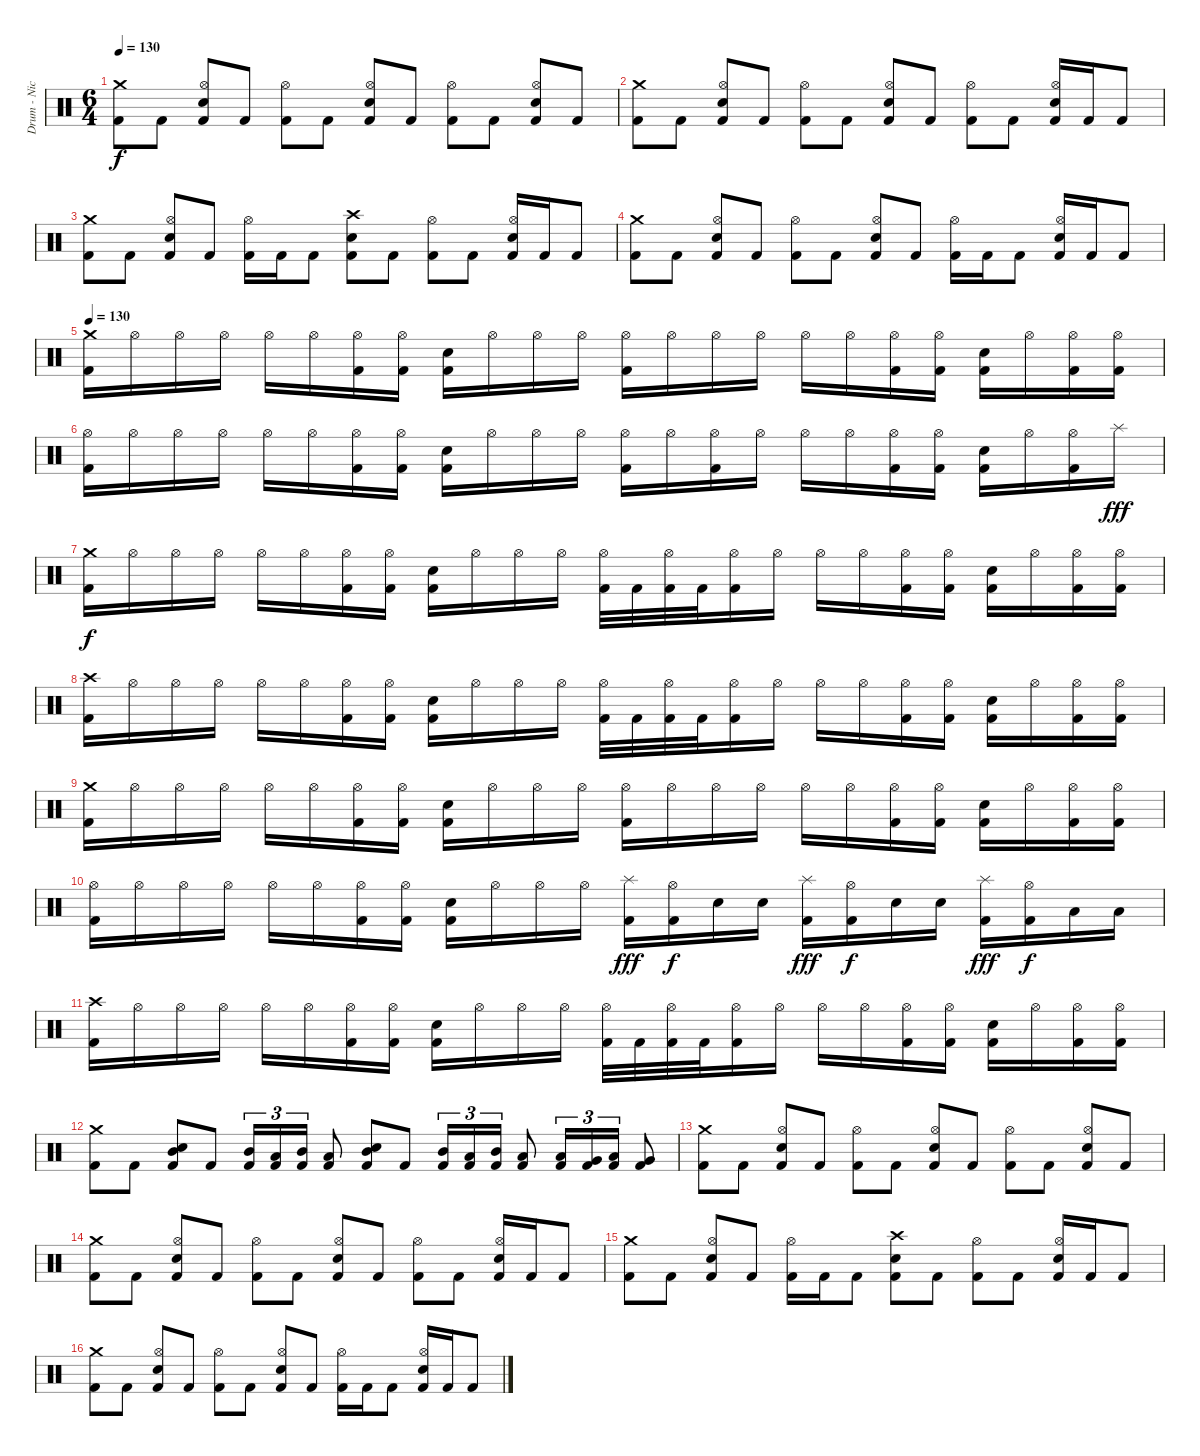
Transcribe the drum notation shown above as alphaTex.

\track ("Drum - Nicholas" "Drum - Nic") {instrument percussion}
\staff {score}
\articulation defaults
\ts (6 4)
\tempo 130
\clef neutral
\ks c
("Crash medium (hit)" "Kick (hit) 2").8{dy f} "Kick (hit) 2".8 ("Hi-Hat (open)" "Snare (hit) 2" "Kick (hit) 2").8 "Kick (hit) 2".8 ("Hi-Hat (open)" "Kick (hit) 2").8 "Kick (hit) 2".8 ("Hi-Hat (open)" "Snare (hit) 2" "Kick (hit) 2").8 "Kick (hit) 2".8 ("Hi-Hat (open)" "Kick (hit) 2").8 "Kick (hit) 2".8 ("Hi-Hat (open)" "Snare (hit) 2" "Kick (hit) 2").8 "Kick (hit) 2".8 |
("Crash medium (hit)" "Kick (hit) 2").8 "Kick (hit) 2".8 ("Hi-Hat (open)" "Snare (hit) 2" "Kick (hit) 2").8 "Kick (hit) 2".8 ("Hi-Hat (open)" "Kick (hit) 2").8 "Kick (hit) 2".8 ("Hi-Hat (open)" "Snare (hit) 2" "Kick (hit) 2").8 "Kick (hit) 2".8 ("Hi-Hat (open)" "Kick (hit) 2").8 "Kick (hit) 2".8 ("Hi-Hat (open)" "Snare (hit) 2" "Kick (hit) 2").16 "Kick (hit) 2".16 "Kick (hit) 2".8 |
("Crash medium (hit)" "Kick (hit) 2").8 "Kick (hit) 2".8 ("Hi-Hat (open)" "Snare (hit) 2" "Kick (hit) 2").8 "Kick (hit) 2".8 ("Hi-Hat (open)" "Kick (hit) 2").16 "Kick (hit) 2".16 "Kick (hit) 2".8 ("Crash high (hit)" "Snare (hit) 2" "Kick (hit) 2").8 "Kick (hit) 2".8 ("Hi-Hat (open)" "Kick (hit) 2").8 "Kick (hit) 2".8 ("Hi-Hat (open)" "Snare (hit) 2" "Kick (hit) 2").16 "Kick (hit) 2".16 "Kick (hit) 2".8 |
("Crash medium (hit)" "Kick (hit) 2").8 "Kick (hit) 2".8 ("Hi-Hat (open)" "Snare (hit) 2" "Kick (hit) 2").8 "Kick (hit) 2".8 ("Hi-Hat (open)" "Kick (hit) 2").8 "Kick (hit) 2".8 ("Hi-Hat (open)" "Snare (hit) 2" "Kick (hit) 2").8 "Kick (hit) 2".8 ("Hi-Hat (open)" "Kick (hit) 2").16 "Kick (hit) 2".16 "Kick (hit) 2".8 ("Hi-Hat (open)" "Snare (hit) 2" "Kick (hit) 2").16 "Kick (hit) 2".16 "Kick (hit) 2".8 |
\tempo 130
("Crash medium (hit)" "Kick (hit) 2").16 "Hi-Hat (open)".16 "Hi-Hat (open)".16 "Hi-Hat (open)".16 "Hi-Hat (open)".16 "Hi-Hat (open)".16 ("Hi-Hat (open)" "Kick (hit) 2").16 ("Hi-Hat (open)" "Kick (hit) 2").16 ("Snare (hit) 2" "Kick (hit) 2").16 "Hi-Hat (open)".16 "Hi-Hat (open)".16 "Hi-Hat (open)".16 ("Hi-Hat (open)" "Kick (hit) 2").16 "Hi-Hat (open)".16 "Hi-Hat (open)".16 "Hi-Hat (open)".16 "Hi-Hat (open)".16 "Hi-Hat (open)".16 ("Hi-Hat (open)" "Kick (hit) 2").16 ("Hi-Hat (open)" "Kick (hit) 2").16 ("Snare (hit) 2" "Kick (hit) 2").16 "Hi-Hat (open)".16 ("Hi-Hat (open)" "Kick (hit) 2").16 ("Hi-Hat (open)" "Kick (hit) 2").16 |
("Hi-Hat (open)" "Kick (hit) 2").16 "Hi-Hat (open)".16 "Hi-Hat (open)".16 "Hi-Hat (open)".16 "Hi-Hat (open)".16 "Hi-Hat (open)".16 ("Hi-Hat (open)" "Kick (hit) 2").16 ("Hi-Hat (open)" "Kick (hit) 2").16 ("Snare (hit) 2" "Kick (hit) 2").16 "Hi-Hat (open)".16 "Hi-Hat (open)".16 "Hi-Hat (open)".16 ("Hi-Hat (open)" "Kick (hit) 2").16 "Hi-Hat (open)".16 ("Hi-Hat (open)" "Kick (hit) 2").16 "Hi-Hat (open)".16 "Hi-Hat (open)".16 "Hi-Hat (open)".16 ("Hi-Hat (open)" "Kick (hit) 2").16 ("Hi-Hat (open)" "Kick (hit) 2").16 ("Snare (hit) 2" "Kick (hit) 2").16 "Hi-Hat (open)".16 ("Hi-Hat (open)" "Kick (hit) 2").16 "Splash (hit)".16{dy fff} |
("Crash medium (hit)" "Kick (hit) 2").16{dy f} "Hi-Hat (open)".16 "Hi-Hat (open)".16 "Hi-Hat (open)".16 "Hi-Hat (open)".16 "Hi-Hat (open)".16 ("Hi-Hat (open)" "Kick (hit) 2").16 ("Hi-Hat (open)" "Kick (hit) 2").16 ("Snare (hit) 2" "Kick (hit) 2").16 "Hi-Hat (open)".16 "Hi-Hat (open)".16 "Hi-Hat (open)".16 ("Hi-Hat (open)" "Kick (hit) 2").32 "Kick (hit) 2".32 ("Hi-Hat (open)" "Kick (hit) 2").32 "Kick (hit) 2".32 ("Hi-Hat (open)" "Kick (hit) 2").16 "Hi-Hat (open)".16 "Hi-Hat (open)".16 "Hi-Hat (open)".16 ("Hi-Hat (open)" "Kick (hit) 2").16 ("Hi-Hat (open)" "Kick (hit) 2").16 ("Snare (hit) 2" "Kick (hit) 2").16 "Hi-Hat (open)".16 ("Hi-Hat (open)" "Kick (hit) 2").16 ("Hi-Hat (open)" "Kick (hit) 2").16 |
("Crash high (hit)" "Kick (hit) 2").16 "Hi-Hat (open)".16 "Hi-Hat (open)".16 "Hi-Hat (open)".16 "Hi-Hat (open)".16 "Hi-Hat (open)".16 ("Hi-Hat (open)" "Kick (hit) 2").16 ("Hi-Hat (open)" "Kick (hit) 2").16 ("Snare (hit) 2" "Kick (hit) 2").16 "Hi-Hat (open)".16 "Hi-Hat (open)".16 "Hi-Hat (open)".16 ("Hi-Hat (open)" "Kick (hit) 2").32 "Kick (hit) 2".32 ("Hi-Hat (open)" "Kick (hit) 2").32 "Kick (hit) 2".32 ("Hi-Hat (open)" "Kick (hit) 2").16 "Hi-Hat (open)".16 "Hi-Hat (open)".16 "Hi-Hat (open)".16 ("Hi-Hat (open)" "Kick (hit) 2").16 ("Hi-Hat (open)" "Kick (hit) 2").16 ("Snare (hit) 2" "Kick (hit) 2").16 "Hi-Hat (open)".16 ("Hi-Hat (open)" "Kick (hit) 2").16 ("Hi-Hat (open)" "Kick (hit) 2").16 |
("Crash medium (hit)" "Kick (hit) 2").16 "Hi-Hat (open)".16 "Hi-Hat (open)".16 "Hi-Hat (open)".16 "Hi-Hat (open)".16 "Hi-Hat (open)".16 ("Hi-Hat (open)" "Kick (hit) 2").16 ("Hi-Hat (open)" "Kick (hit) 2").16 ("Snare (hit) 2" "Kick (hit) 2").16 "Hi-Hat (open)".16 "Hi-Hat (open)".16 "Hi-Hat (open)".16 ("Hi-Hat (open)" "Kick (hit) 2").16 "Hi-Hat (open)".16 "Hi-Hat (open)".16 "Hi-Hat (open)".16 "Hi-Hat (open)".16 "Hi-Hat (open)".16 ("Hi-Hat (open)" "Kick (hit) 2").16 ("Hi-Hat (open)" "Kick (hit) 2").16 ("Snare (hit) 2" "Kick (hit) 2").16 "Hi-Hat (open)".16 ("Hi-Hat (open)" "Kick (hit) 2").16 ("Hi-Hat (open)" "Kick (hit) 2").16 |
("Hi-Hat (open)" "Kick (hit) 2").16 "Hi-Hat (open)".16 "Hi-Hat (open)".16 "Hi-Hat (open)".16 "Hi-Hat (open)".16 "Hi-Hat (open)".16 ("Hi-Hat (open)" "Kick (hit) 2").16 ("Hi-Hat (open)" "Kick (hit) 2").16 ("Snare (hit) 2" "Kick (hit) 2").16 "Hi-Hat (open)".16 "Hi-Hat (open)".16 "Hi-Hat (open)".16 ("Splash (hit)" "Kick (hit) 2").16{dy fff} ("Hi-Hat (open)" "Kick (hit) 2").16{dy f} "Snare (hit) 2".16 "Snare (hit) 2".16 ("Splash (hit)" "Kick (hit) 2").16{dy fff} ("Hi-Hat (open)" "Kick (hit) 2").16{dy f} "Snare (hit) 2".16 "Snare (hit) 2".16 ("Splash (hit)" "Kick (hit) 2").16{dy fff} ("Hi-Hat (open)" "Kick (hit) 2").16{dy f} "Low Tom (hit)".16 "Low Tom (hit)".16 |
("Crash high (hit)" "Kick (hit) 2").16 "Hi-Hat (open)".16 "Hi-Hat (open)".16 "Hi-Hat (open)".16 "Hi-Hat (open)".16 "Hi-Hat (open)".16 ("Hi-Hat (open)" "Kick (hit) 2").16 ("Hi-Hat (open)" "Kick (hit) 2").16 ("Snare (hit) 2" "Kick (hit) 2").16 "Hi-Hat (open)".16 "Hi-Hat (open)".16 "Hi-Hat (open)".16 ("Hi-Hat (open)" "Kick (hit) 2").32 "Kick (hit) 2".32 ("Hi-Hat (open)" "Kick (hit) 2").32 "Kick (hit) 2".32 ("Hi-Hat (open)" "Kick (hit) 2").16 "Hi-Hat (open)".16 "Hi-Hat (open)".16 "Hi-Hat (open)".16 ("Hi-Hat (open)" "Kick (hit) 2").16 ("Hi-Hat (open)" "Kick (hit) 2").16 ("Snare (hit) 2" "Kick (hit) 2").16 "Hi-Hat (open)".16 ("Hi-Hat (open)" "Kick (hit) 2").16 ("Hi-Hat (open)" "Kick (hit) 2").16 |
("Crash medium (hit)" "Kick (hit) 2").8 "Kick (hit) 2".8 ("Mid Tom (hit)" "Snare (hit) 2" "Kick (hit) 2").8 "Kick (hit) 2".8 ("Mid Tom (hit)" "Kick (hit) 2").16{tu (3 2)} ("Low Tom (hit)" "Kick (hit) 2").16{tu (3 2)} ("Mid Tom (hit)" "Kick (hit) 2").16{tu (3 2)} ("Low Tom (hit)" "Kick (hit) 2").8 ("Mid Tom (hit)" "Snare (hit) 2" "Kick (hit) 2").8 "Kick (hit) 2".8 ("Mid Tom (hit)" "Kick (hit) 2").16{tu (3 2)} ("Low Tom (hit)" "Kick (hit) 2").16{tu (3 2)} ("Mid Tom (hit)" "Kick (hit) 2").16{tu (3 2)} ("Low Tom (hit)" "Kick (hit) 2").8 ("Low Tom (hit)" "Kick (hit) 2").16{tu (3 2)} ("Very Low Tom (hit)" "Kick (hit) 2").16{tu (3 2)} ("Low Tom (hit)" "Kick (hit) 2").16{tu (3 2)} ("Very Low Tom (hit)" "Kick (hit) 2").8 |
("Crash medium (hit)" "Kick (hit) 2").8 "Kick (hit) 2".8 ("Hi-Hat (open)" "Snare (hit) 2" "Kick (hit) 2").8 "Kick (hit) 2".8 ("Hi-Hat (open)" "Kick (hit) 2").8 "Kick (hit) 2".8 ("Hi-Hat (open)" "Snare (hit) 2" "Kick (hit) 2").8 "Kick (hit) 2".8 ("Hi-Hat (open)" "Kick (hit) 2").8 "Kick (hit) 2".8 ("Hi-Hat (open)" "Snare (hit) 2" "Kick (hit) 2").8 "Kick (hit) 2".8 |
("Crash medium (hit)" "Kick (hit) 2").8 "Kick (hit) 2".8 ("Hi-Hat (open)" "Snare (hit) 2" "Kick (hit) 2").8 "Kick (hit) 2".8 ("Hi-Hat (open)" "Kick (hit) 2").8 "Kick (hit) 2".8 ("Hi-Hat (open)" "Snare (hit) 2" "Kick (hit) 2").8 "Kick (hit) 2".8 ("Hi-Hat (open)" "Kick (hit) 2").8 "Kick (hit) 2".8 ("Hi-Hat (open)" "Snare (hit) 2" "Kick (hit) 2").16 "Kick (hit) 2".16 "Kick (hit) 2".8 |
("Crash medium (hit)" "Kick (hit) 2").8 "Kick (hit) 2".8 ("Hi-Hat (open)" "Snare (hit) 2" "Kick (hit) 2").8 "Kick (hit) 2".8 ("Hi-Hat (open)" "Kick (hit) 2").16 "Kick (hit) 2".16 "Kick (hit) 2".8 ("Crash high (hit)" "Snare (hit) 2" "Kick (hit) 2").8 "Kick (hit) 2".8 ("Hi-Hat (open)" "Kick (hit) 2").8 "Kick (hit) 2".8 ("Hi-Hat (open)" "Snare (hit) 2" "Kick (hit) 2").16 "Kick (hit) 2".16 "Kick (hit) 2".8 |
("Crash medium (hit)" "Kick (hit) 2").8 "Kick (hit) 2".8 ("Hi-Hat (open)" "Snare (hit) 2" "Kick (hit) 2").8 "Kick (hit) 2".8 ("Hi-Hat (open)" "Kick (hit) 2").8 "Kick (hit) 2".8 ("Hi-Hat (open)" "Snare (hit) 2" "Kick (hit) 2").8 "Kick (hit) 2".8 ("Hi-Hat (open)" "Kick (hit) 2").16 "Kick (hit) 2".16 "Kick (hit) 2".8 ("Hi-Hat (open)" "Snare (hit) 2" "Kick (hit) 2").16 "Kick (hit) 2".16 "Kick (hit) 2".8
